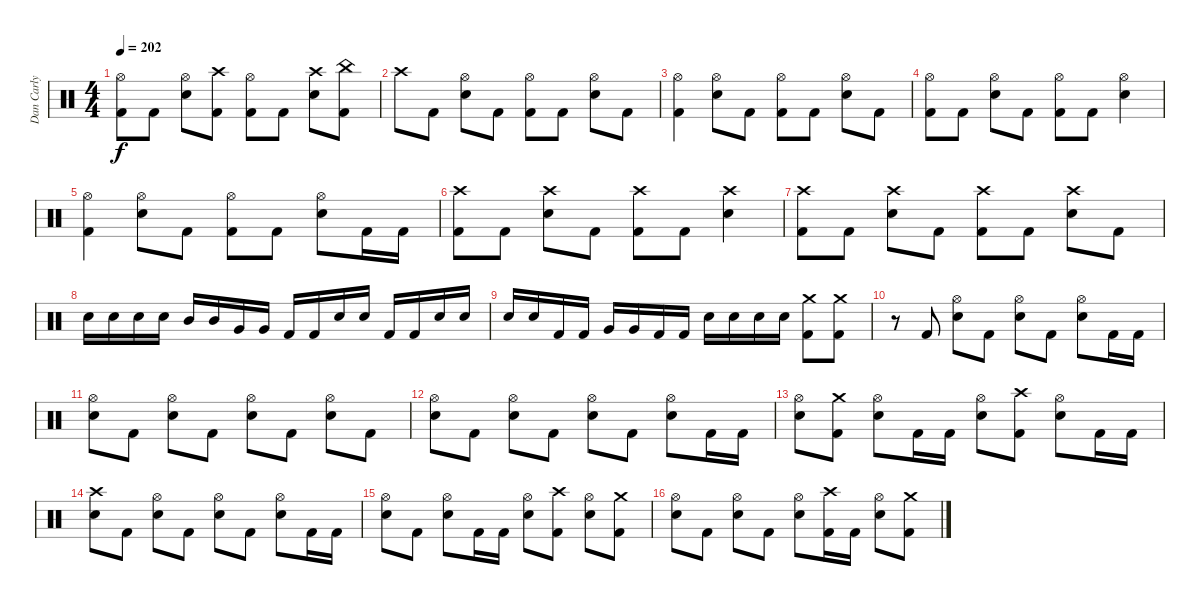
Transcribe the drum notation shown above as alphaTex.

\track ("Dan Carly" "Dan Carly") {instrument percussion}
\staff {score}
\articulation defaults
\ts (4 4)
\tempo 202
\clef neutral
\ks c
("Hi-Hat (open)" "Kick (hit) 2").8{dy f} "Kick (hit) 2".8 ("Hi-Hat (open)" "Electric Snare (hit)").8 ("Crash high (hit)" "Kick (hit) 2").8 ("Hi-Hat (open)" "Kick (hit) 2").8 "Kick (hit) 2".8 ("Crash high (hit)" "Electric Snare (hit)").8 ("China (hit)" "Kick (hit) 2").8 |
"Crash high (hit)".8 "Kick (hit) 2".8 ("Hi-Hat (open)" "Electric Snare (hit)").8 "Kick (hit) 2".8 ("Hi-Hat (open)" "Kick (hit) 2").8 "Kick (hit) 2".8 ("Hi-Hat (open)" "Electric Snare (hit)").8 "Kick (hit) 2".8 |
("Hi-Hat (open)" "Kick (hit) 2").4 ("Hi-Hat (open)" "Electric Snare (hit)").8 "Kick (hit) 2".8 ("Hi-Hat (open)" "Kick (hit) 2").8 "Kick (hit) 2".8 ("Hi-Hat (open)" "Electric Snare (hit)").8 "Kick (hit) 2".8 |
("Hi-Hat (open)" "Kick (hit) 2").8 "Kick (hit) 2".8 ("Hi-Hat (open)" "Electric Snare (hit)").8 "Kick (hit) 2".8 ("Hi-Hat (open)" "Kick (hit) 2").8 "Kick (hit) 2".8 ("Hi-Hat (open)" "Electric Snare (hit)").4 |
("Hi-Hat (open)" "Kick (hit) 2").4 ("Hi-Hat (open)" "Electric Snare (hit)").8 "Kick (hit) 2".8 ("Hi-Hat (open)" "Kick (hit) 2").8 "Kick (hit) 2".8 ("Hi-Hat (open)" "Electric Snare (hit)").8 "Kick (hit) 2".16 "Kick (hit) 2".16 |
("Crash high (hit)" "Kick (hit) 2").8 "Kick (hit) 2".8 ("Crash high (hit)" "Electric Snare (hit)").8 "Kick (hit) 2".8 ("Crash high (hit)" "Kick (hit) 2").8 "Kick (hit) 2".8 ("Crash high (hit)" "Electric Snare (hit)").4 |
("Crash high (hit)" "Kick (hit) 2").8 "Kick (hit) 2".8 ("Crash high (hit)" "Electric Snare (hit)").8 "Kick (hit) 2".8 ("Crash high (hit)" "Kick (hit) 2").8 "Kick (hit) 2".8 ("Crash high (hit)" "Electric Snare (hit)").8 "Kick (hit) 2".8 |
"Electric Snare (hit)".16 "Electric Snare (hit)".16 "Electric Snare (hit)".16 "Electric Snare (hit)".16 "Mid Tom (hit)".16 "Mid Tom (hit)".16 "Very Low Tom (hit)".16 "Very Low Tom (hit)".16 "Kick (hit) 2".16 "Kick (hit) 2".16 "Electric Snare (hit)".16 "Electric Snare (hit)".16 "Kick (hit) 2".16 "Kick (hit) 2".16 "Electric Snare (hit)".16 "Electric Snare (hit)".16 |
"Electric Snare (hit)".16 "Electric Snare (hit)".16 "Kick (hit) 2".16 "Kick (hit) 2".16 "Very Low Tom (hit)".16 "Very Low Tom (hit)".16 "Kick (hit) 2".16 "Kick (hit) 2".16 "Electric Snare (hit)".16 "Electric Snare (hit)".16 "Electric Snare (hit)".16 "Electric Snare (hit)".16 ("Crash medium (hit)" "Kick (hit) 2").8 ("Crash medium (hit)" "Kick (hit) 2").8 |
r.8 "Kick (hit) 2".8 ("Hi-Hat (open)" "Electric Snare (hit)").8 "Kick (hit) 2".8 ("Hi-Hat (open)" "Electric Snare (hit)").8 "Kick (hit) 2".8 ("Hi-Hat (open)" "Electric Snare (hit)").8 "Kick (hit) 2".16 "Kick (hit) 2".16 |
("Hi-Hat (open)" "Electric Snare (hit)").8 "Kick (hit) 2".8 ("Hi-Hat (open)" "Electric Snare (hit)").8 "Kick (hit) 2".8 ("Hi-Hat (open)" "Electric Snare (hit)").8 "Kick (hit) 2".8 ("Hi-Hat (open)" "Electric Snare (hit)").8 "Kick (hit) 2".8 |
("Hi-Hat (open)" "Electric Snare (hit)").8 "Kick (hit) 2".8 ("Hi-Hat (open)" "Electric Snare (hit)").8 "Kick (hit) 2".8 ("Hi-Hat (open)" "Electric Snare (hit)").8 "Kick (hit) 2".8 ("Hi-Hat (open)" "Electric Snare (hit)").8 "Kick (hit) 2".16 "Kick (hit) 2".16 |
("Hi-Hat (open)" "Electric Snare (hit)").8 ("Crash medium (hit)" "Kick (hit) 2").8 ("Hi-Hat (open)" "Electric Snare (hit)").8 "Kick (hit) 2".16 "Kick (hit) 2".16 ("Hi-Hat (open)" "Electric Snare (hit)").8 ("Crash high (hit)" "Kick (hit) 2").8 ("Hi-Hat (open)" "Electric Snare (hit)").8 "Kick (hit) 2".16 "Kick (hit) 2".16 |
("Crash high (hit)" "Electric Snare (hit)").8 "Kick (hit) 2".8 ("Hi-Hat (open)" "Electric Snare (hit)").8 "Kick (hit) 2".8 ("Hi-Hat (open)" "Electric Snare (hit)").8 "Kick (hit) 2".8 ("Hi-Hat (open)" "Electric Snare (hit)").8 "Kick (hit) 2".16 "Kick (hit) 2".16 |
("Hi-Hat (open)" "Electric Snare (hit)").8 "Kick (hit) 2".8 ("Hi-Hat (open)" "Electric Snare (hit)").8 "Kick (hit) 2".16 "Kick (hit) 2".16 ("Hi-Hat (open)" "Electric Snare (hit)").8 ("Crash high (hit)" "Kick (hit) 2").8 ("Hi-Hat (open)" "Electric Snare (hit)").8 ("Crash medium (hit)" "Kick (hit) 2").8 |
("Hi-Hat (open)" "Electric Snare (hit)").8 "Kick (hit) 2".8 ("Hi-Hat (open)" "Electric Snare (hit)").8 "Kick (hit) 2".8 ("Hi-Hat (open)" "Electric Snare (hit)").8 ("Crash high (hit)" "Kick (hit) 2").16 "Kick (hit) 2".16 ("Hi-Hat (open)" "Electric Snare (hit)").8 ("Crash medium (hit)" "Kick (hit) 2").8
